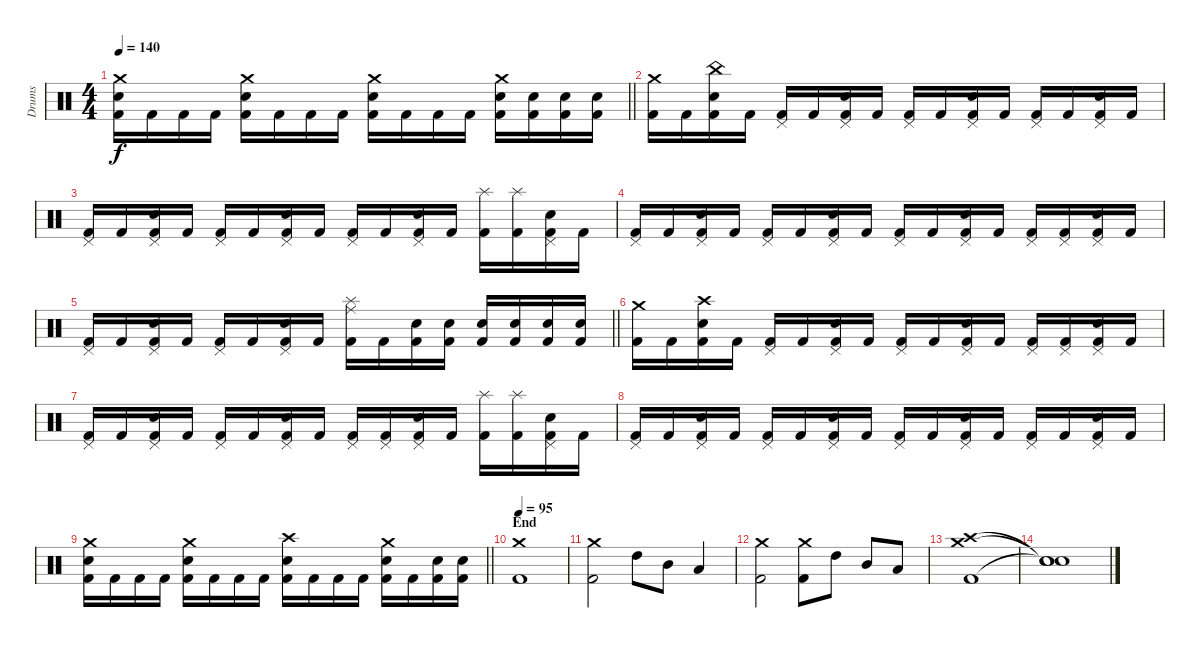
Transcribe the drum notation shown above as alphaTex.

\track ("Drums" "Drums") {instrument percussion}
\staff {score}
\articulation defaults
\ts (4 4)
\tempo 140
\clef neutral
\barLineRight lightlight
\ks c
("Kick (hit) 2" "Snare (hit) 2" "Crash medium (hit)").16{dy f} "Kick (hit) 2".16 "Kick (hit) 2".16 "Kick (hit) 2".16 ("Kick (hit) 2" "Snare (hit) 2" "Crash medium (hit)").16 "Kick (hit) 2".16 "Kick (hit) 2".16 "Kick (hit) 2".16 ("Kick (hit) 2" "Snare (hit) 2" "Crash medium (hit)").16 "Kick (hit) 2".16 "Kick (hit) 2".16 "Kick (hit) 2".16 ("Kick (hit) 2" "Snare (hit) 2" "Crash medium (hit)").16 ("Kick (hit) 2" "Snare (hit) 2").16 ("Kick (hit) 2" "Snare (hit) 2").16 ("Kick (hit) 2" "Snare (hit) 2").16 |
\section ("" "")
("Kick (hit) 2" "Crash medium (hit)").16 "Kick (hit) 2".16 ("Kick (hit) 2" "Snare (hit) 2" "China (hit)").16 "Kick (hit) 2".16 ("Kick (hit) 2" "Pedal Hi-Hat (hit)").16 "Kick (hit) 2".16 ("Kick (hit) 2" "Snare (hit) 2" "Pedal Hi-Hat (hit)").16 "Kick (hit) 2".16 ("Kick (hit) 2" "Pedal Hi-Hat (hit)").16 "Kick (hit) 2".16 ("Kick (hit) 2" "Snare (hit) 2" "Pedal Hi-Hat (hit)").16 "Kick (hit) 2".16 ("Kick (hit) 2" "Pedal Hi-Hat (hit)").16 "Kick (hit) 2".16 ("Kick (hit) 2" "Snare (hit) 2" "Pedal Hi-Hat (hit)").16 "Kick (hit) 2".16 |
("Kick (hit) 2" "Pedal Hi-Hat (hit)").16 "Kick (hit) 2".16 ("Kick (hit) 2" "Snare (hit) 2" "Pedal Hi-Hat (hit)").16 "Kick (hit) 2".16 ("Kick (hit) 2" "Pedal Hi-Hat (hit)").16 "Kick (hit) 2".16 ("Kick (hit) 2" "Snare (hit) 2" "Pedal Hi-Hat (hit)").16 "Kick (hit) 2".16 ("Kick (hit) 2" "Pedal Hi-Hat (hit)").16 "Kick (hit) 2".16 ("Kick (hit) 2" "Snare (hit) 2" "Pedal Hi-Hat (hit)").16 "Kick (hit) 2".16 ("Kick (hit) 2" "Splash (hit)").16 ("Kick (hit) 2" "Splash (hit)").16 ("Kick (hit) 2" "Snare (hit) 2" "Pedal Hi-Hat (hit)").16 "Kick (hit) 2".16 |
("Kick (hit) 2" "Pedal Hi-Hat (hit)").16 "Kick (hit) 2".16 ("Kick (hit) 2" "Snare (hit) 2" "Pedal Hi-Hat (hit)").16 "Kick (hit) 2".16 ("Kick (hit) 2" "Pedal Hi-Hat (hit)").16 "Kick (hit) 2".16 ("Kick (hit) 2" "Snare (hit) 2" "Pedal Hi-Hat (hit)").16 "Kick (hit) 2".16 ("Kick (hit) 2" "Pedal Hi-Hat (hit)").16 "Kick (hit) 2".16 ("Kick (hit) 2" "Snare (hit) 2" "Pedal Hi-Hat (hit)").16 "Kick (hit) 2".16 ("Kick (hit) 2" "Pedal Hi-Hat (hit)").16 ("Kick (hit) 2" "Pedal Hi-Hat (hit)").16 ("Kick (hit) 2" "Snare (hit) 2" "Pedal Hi-Hat (hit)").16 "Kick (hit) 2".16 |
\barLineRight lightlight
("Kick (hit) 2" "Pedal Hi-Hat (hit)").16 "Kick (hit) 2".16 ("Kick (hit) 2" "Snare (hit) 2" "Pedal Hi-Hat (hit)").16 "Kick (hit) 2".16 ("Kick (hit) 2" "Pedal Hi-Hat (hit)").16 "Kick (hit) 2".16 ("Kick (hit) 2" "Snare (hit) 2" "Pedal Hi-Hat (hit)").16 "Kick (hit) 2".16 ("Kick (hit) 2" "Ride (middle)" "Splash (hit)").16 "Kick (hit) 2".16 ("Kick (hit) 2" "Snare (hit) 2").16 ("Kick (hit) 2" "Snare (hit) 2").16 ("Kick (hit) 2" "Snare (hit) 2").16 ("Kick (hit) 2" "Snare (hit) 2").16 ("Kick (hit) 2" "Snare (hit) 2").16 ("Kick (hit) 2" "Snare (hit) 2").16 |
\section ("" "")
("Kick (hit) 2" "Crash medium (hit)").16 "Kick (hit) 2".16 ("Kick (hit) 2" "Snare (hit) 2" "Crash high (hit)").16 "Kick (hit) 2".16 ("Kick (hit) 2" "Pedal Hi-Hat (hit)").16 "Kick (hit) 2".16 ("Kick (hit) 2" "Snare (hit) 2" "Pedal Hi-Hat (hit)").16 "Kick (hit) 2".16 ("Kick (hit) 2" "Pedal Hi-Hat (hit)").16 "Kick (hit) 2".16 ("Kick (hit) 2" "Snare (hit) 2" "Pedal Hi-Hat (hit)").16 "Kick (hit) 2".16 ("Kick (hit) 2" "Pedal Hi-Hat (hit)").16 ("Kick (hit) 2" "Pedal Hi-Hat (hit)").16 ("Kick (hit) 2" "Snare (hit) 2" "Pedal Hi-Hat (hit)").16 "Kick (hit) 2".16 |
("Kick (hit) 2" "Pedal Hi-Hat (hit)").16 "Kick (hit) 2".16 ("Kick (hit) 2" "Snare (hit) 2" "Pedal Hi-Hat (hit)").16 "Kick (hit) 2".16 ("Kick (hit) 2" "Pedal Hi-Hat (hit)").16 "Kick (hit) 2".16 ("Kick (hit) 2" "Snare (hit) 2" "Pedal Hi-Hat (hit)").16 "Kick (hit) 2".16 ("Kick (hit) 2" "Pedal Hi-Hat (hit)").16 ("Kick (hit) 2" "Pedal Hi-Hat (hit)").16 ("Kick (hit) 2" "Snare (hit) 2" "Pedal Hi-Hat (hit)").16 "Kick (hit) 2".16 ("Kick (hit) 2" "Splash (hit)").16 ("Kick (hit) 2" "Splash (hit)").16 ("Kick (hit) 2" "Snare (hit) 2" "Pedal Hi-Hat (hit)").16 "Kick (hit) 2".16 |
("Kick (hit) 2" "Pedal Hi-Hat (hit)").16 "Kick (hit) 2".16 ("Kick (hit) 2" "Snare (hit) 2" "Pedal Hi-Hat (hit)").16 "Kick (hit) 2".16 ("Kick (hit) 2" "Pedal Hi-Hat (hit)").16 "Kick (hit) 2".16 ("Kick (hit) 2" "Snare (hit) 2" "Pedal Hi-Hat (hit)").16 "Kick (hit) 2".16 ("Kick (hit) 2" "Pedal Hi-Hat (hit)").16 "Kick (hit) 2".16 ("Kick (hit) 2" "Snare (hit) 2" "Pedal Hi-Hat (hit)").16 "Kick (hit) 2".16 ("Kick (hit) 2" "Pedal Hi-Hat (hit)").16 "Kick (hit) 2".16 ("Kick (hit) 2" "Snare (hit) 2" "Pedal Hi-Hat (hit)").16 "Kick (hit) 2".16 |
\barLineRight lightlight
("Kick (hit) 2" "Snare (hit) 2" "Crash medium (hit)").16 "Kick (hit) 2".16 "Kick (hit) 2".16 "Kick (hit) 2".16 ("Kick (hit) 2" "Snare (hit) 2" "Crash medium (hit)").16 "Kick (hit) 2".16 "Kick (hit) 2".16 "Kick (hit) 2".16 ("Kick (hit) 2" "Snare (hit) 2" "Crash high (hit)").16 "Kick (hit) 2".16 "Kick (hit) 2".16 "Kick (hit) 2".16 ("Kick (hit) 2" "Snare (hit) 2" "Crash medium (hit)").16 "Kick (hit) 2".16 ("Kick (hit) 2" "Snare (hit) 2").16 ("Kick (hit) 2" "Snare (hit) 2").16 |
\section ("" "End")
\tempo 95
("Kick (hit) 2" "Crash medium (hit)").1 |
("Kick (hit) 2" "Crash medium (hit)").2 "High Tom (hit)".8 "Mid Tom (hit)".8 "Low Tom (hit)".4 |
("Kick (hit) 2" "Crash medium (hit)").2 ("Kick (hit) 2" "Crash medium (hit)").8 "High Tom (hit)".8 "Mid Tom (hit)".8 "Low Tom (hit)".8 |
("Kick (hit) 2" "Crash medium (hit)" "Crash high (hit)").1 |
("Snare (hit)"{t} "Snare (hit)"{t} "Snare (hit)"{t}).1
